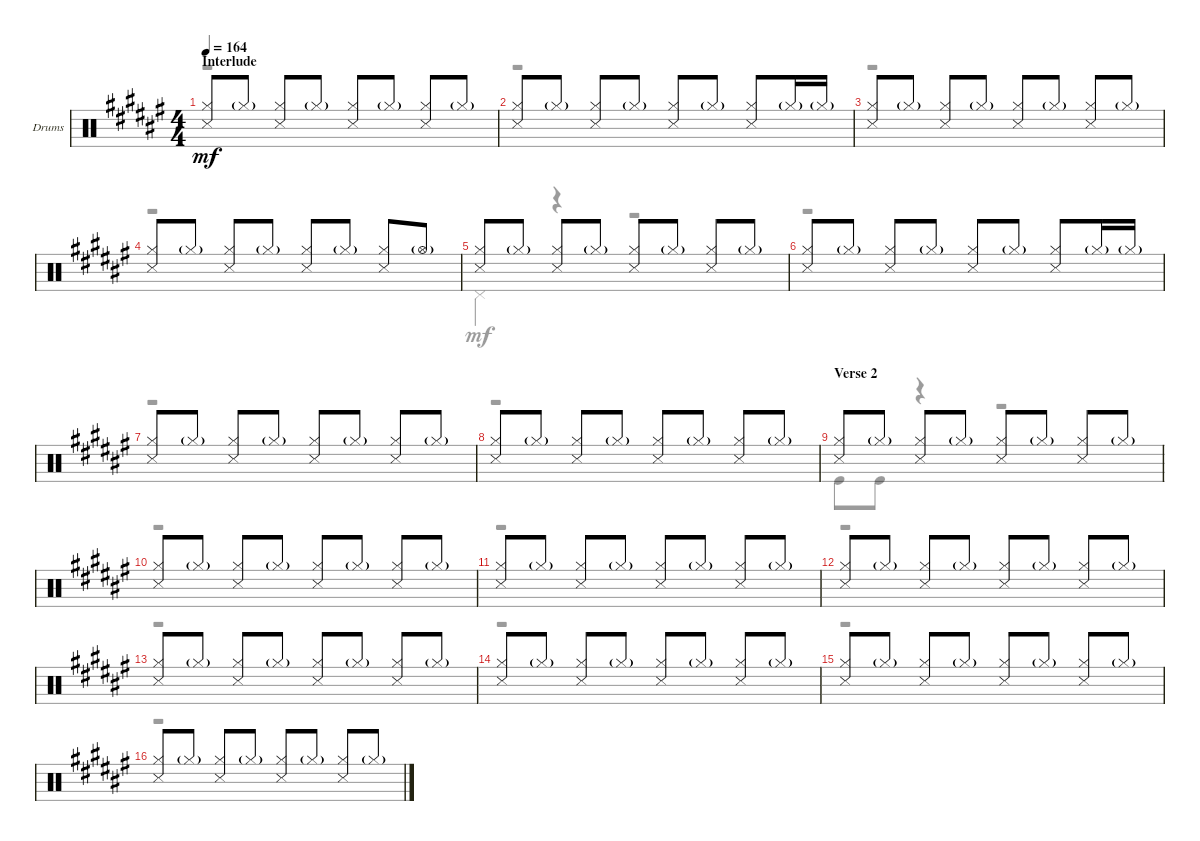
\defaultSystemsLayout 4
\bracketExtendMode groupsimilarinstruments
\firstSystemTrackNameOrientation horizontal
\otherSystemsTrackNameOrientation horizontal
\track ("Drums" "Drums") {instrument percussion}
\staff {score}
\articulation defaults
\voice
\ts (4 4)
\section ("" "Interlude")
\tempo 164
\clef neutral
\ks f#
("Hi-Hat (closed)" "Snare (side stick) 3").8{dy mf} "Hi-Hat (closed)"{g}.8 ("Hi-Hat (closed)" "Snare (side stick) 3").8 "Hi-Hat (closed)"{g}.8 ("Hi-Hat (closed)" "Snare (side stick) 3").8 "Hi-Hat (closed)"{g}.8 ("Hi-Hat (closed)" "Snare (side stick) 3").8 "Hi-Hat (closed)"{g}.8 |
("Hi-Hat (closed)" "Snare (side stick) 3").8 "Hi-Hat (closed)"{g}.8 ("Hi-Hat (closed)" "Snare (side stick) 3").8 "Hi-Hat (closed)"{g}.8 ("Hi-Hat (closed)" "Snare (side stick) 3").8 "Hi-Hat (closed)"{g}.8 ("Hi-Hat (closed)" "Snare (side stick) 3").8 "Hi-Hat (closed)"{g}.16 "Hi-Hat (closed)"{g}.16 |
("Hi-Hat (closed)" "Snare (side stick) 3").8 "Hi-Hat (closed)"{g}.8 ("Hi-Hat (closed)" "Snare (side stick) 3").8 "Hi-Hat (closed)"{g}.8 ("Hi-Hat (closed)" "Snare (side stick) 3").8 "Hi-Hat (closed)"{g}.8 ("Hi-Hat (closed)" "Snare (side stick) 3").8 "Hi-Hat (closed)"{g}.8 |
("Hi-Hat (closed)" "Snare (side stick) 3").8 "Hi-Hat (closed)"{g}.8 ("Hi-Hat (closed)" "Snare (side stick) 3").8 "Hi-Hat (closed)"{g}.8 ("Hi-Hat (closed)" "Snare (side stick) 3").8 "Hi-Hat (closed)"{g}.8 ("Hi-Hat (closed)" "Snare (side stick) 3").8 "Hi-Hat (open)"{g}.8 |
("Hi-Hat (closed)" "Snare (side stick) 3").8 "Hi-Hat (closed)"{g}.8 ("Hi-Hat (closed)" "Snare (side stick) 3").8 "Hi-Hat (closed)"{g}.8 ("Hi-Hat (closed)" "Snare (side stick) 3").8 "Hi-Hat (closed)"{g}.8 ("Hi-Hat (closed)" "Snare (side stick) 3").8 "Hi-Hat (closed)"{g}.8 |
("Hi-Hat (closed)" "Snare (side stick) 3").8 "Hi-Hat (closed)"{g}.8 ("Hi-Hat (closed)" "Snare (side stick) 3").8 "Hi-Hat (closed)"{g}.8 ("Hi-Hat (closed)" "Snare (side stick) 3").8 "Hi-Hat (closed)"{g}.8 ("Hi-Hat (closed)" "Snare (side stick) 3").8 "Hi-Hat (closed)"{g}.16 "Hi-Hat (closed)"{g}.16 |
("Hi-Hat (closed)" "Snare (side stick) 3").8 "Hi-Hat (closed)"{g}.8 ("Hi-Hat (closed)" "Snare (side stick) 3").8 "Hi-Hat (closed)"{g}.8 ("Hi-Hat (closed)" "Snare (side stick) 3").8 "Hi-Hat (closed)"{g}.8 ("Hi-Hat (closed)" "Snare (side stick) 3").8 "Hi-Hat (closed)"{g}.8 |
("Hi-Hat (closed)" "Snare (side stick) 3").8 "Hi-Hat (closed)"{g}.8 ("Hi-Hat (closed)" "Snare (side stick) 3").8 "Hi-Hat (closed)"{g}.8 ("Hi-Hat (closed)" "Snare (side stick) 3").8 "Hi-Hat (closed)"{g}.8 ("Hi-Hat (closed)" "Snare (side stick) 3").8 "Hi-Hat (closed)"{g}.8 |
\section ("" "Verse 2")
("Hi-Hat (closed)" "Snare (side stick) 3").8 "Hi-Hat (closed)"{g}.8 ("Hi-Hat (closed)" "Snare (side stick) 3").8 "Hi-Hat (closed)"{g}.8 ("Hi-Hat (closed)" "Snare (side stick) 3").8 "Hi-Hat (closed)"{g}.8 ("Hi-Hat (closed)" "Snare (side stick) 3").8 "Hi-Hat (closed)"{g}.8 |
("Hi-Hat (closed)" "Snare (side stick) 3").8 "Hi-Hat (closed)"{g}.8 ("Hi-Hat (closed)" "Snare (side stick) 3").8 "Hi-Hat (closed)"{g}.8 ("Hi-Hat (closed)" "Snare (side stick) 3").8 "Hi-Hat (closed)"{g}.8 ("Hi-Hat (closed)" "Snare (side stick) 3").8 "Hi-Hat (closed)"{g}.8 |
("Hi-Hat (closed)" "Snare (side stick) 3").8 "Hi-Hat (closed)"{g}.8 ("Hi-Hat (closed)" "Snare (side stick) 3").8 "Hi-Hat (closed)"{g}.8 ("Hi-Hat (closed)" "Snare (side stick) 3").8 "Hi-Hat (closed)"{g}.8 ("Hi-Hat (closed)" "Snare (side stick) 3").8 "Hi-Hat (closed)"{g}.8 |
("Hi-Hat (closed)" "Snare (side stick) 3").8 "Hi-Hat (closed)"{g}.8 ("Hi-Hat (closed)" "Snare (side stick) 3").8 "Hi-Hat (closed)"{g}.8 ("Hi-Hat (closed)" "Snare (side stick) 3").8 "Hi-Hat (closed)"{g}.8 ("Hi-Hat (closed)" "Snare (side stick) 3").8 "Hi-Hat (closed)"{g}.8 |
("Hi-Hat (closed)" "Snare (side stick) 3").8 "Hi-Hat (closed)"{g}.8 ("Hi-Hat (closed)" "Snare (side stick) 3").8 "Hi-Hat (closed)"{g}.8 ("Hi-Hat (closed)" "Snare (side stick) 3").8 "Hi-Hat (closed)"{g}.8 ("Hi-Hat (closed)" "Snare (side stick) 3").8 "Hi-Hat (closed)"{g}.8 |
("Hi-Hat (closed)" "Snare (side stick) 3").8 "Hi-Hat (closed)"{g}.8 ("Hi-Hat (closed)" "Snare (side stick) 3").8 "Hi-Hat (closed)"{g}.8 ("Hi-Hat (closed)" "Snare (side stick) 3").8 "Hi-Hat (closed)"{g}.8 ("Hi-Hat (closed)" "Snare (side stick) 3").8 "Hi-Hat (closed)"{g}.8 |
("Hi-Hat (closed)" "Snare (side stick) 3").8 "Hi-Hat (closed)"{g}.8 ("Hi-Hat (closed)" "Snare (side stick) 3").8 "Hi-Hat (closed)"{g}.8 ("Hi-Hat (closed)" "Snare (side stick) 3").8 "Hi-Hat (closed)"{g}.8 ("Hi-Hat (closed)" "Snare (side stick) 3").8 "Hi-Hat (closed)"{g}.8 |
("Hi-Hat (closed)" "Snare (side stick) 3").8 "Hi-Hat (closed)"{g}.8 ("Hi-Hat (closed)" "Snare (side stick) 3").8 "Hi-Hat (closed)"{g}.8 ("Hi-Hat (closed)" "Snare (side stick) 3").8 "Hi-Hat (closed)"{g}.8 ("Hi-Hat (closed)" "Snare (side stick) 3").8 "Hi-Hat (closed)"{g}.8
\voice
\clef neutral
\ottava regular
\simile none
\ks f#
r.1{dy f} |
r.1 |
r.1 |
r.1 |
"Pedal Hi-Hat (hit)".4{dy mf} r.4 r.2 |
r.1 |
r.1 |
r.1 |
"Kick (hit)".8 "Kick (hit)".8 r.4 r.2 |
r.1 |
r.1 |
r.1 |
r.1 |
r.1 |
r.1 |
r.1
